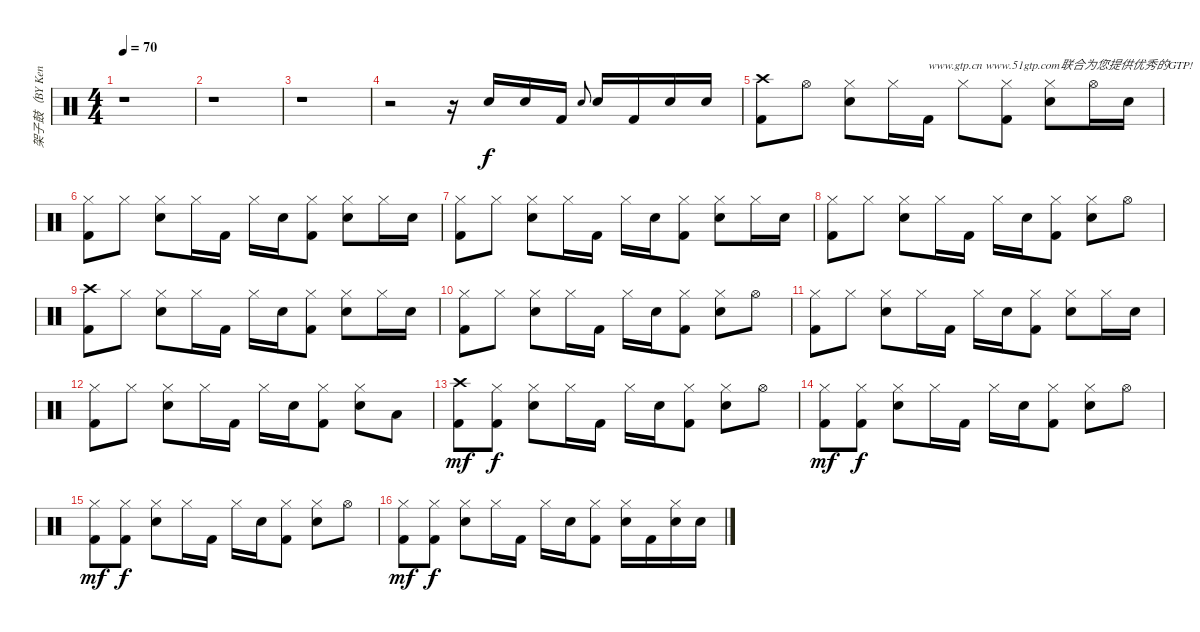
\track ("架子鼓（BY Ken）" "架子鼓（BY Ken") {instrument percussion}
\staff {score}
\articulation defaults
\ts (4 4)
\tempo 70
\clef neutral
\ks c
r.1{dy f} |
r.1 |
r.1 |
r.2 r.16 "Electric Snare (hit)".16 "Electric Snare (hit)".16 "Kick (hit) 2".16 "Electric Snare (hit)".8{gr onbeat} "Electric Snare (hit)".16 "Kick (hit) 2".16 "Electric Snare (hit)".16 "Electric Snare (hit)".16 |
("Crash high (hit)" "Kick (hit) 2").8 "Hi-Hat (open)".8 ("Hi-Hat (closed)" "Electric Snare (hit)").8 "Hi-Hat (closed)".16 "Kick (hit) 2".16{txt "www.gtp.cn www.51gtp.com联合为您提供优秀的GTP!"} "Hi-Hat (closed)".8 ("Hi-Hat (closed)" "Kick (hit) 2").8 ("Hi-Hat (closed)" "Electric Snare (hit)").8 "Hi-Hat (open)".16 "Electric Snare (hit)".16 |
("Hi-Hat (closed)" "Kick (hit) 2").8 "Hi-Hat (closed)".8 ("Hi-Hat (closed)" "Electric Snare (hit)").8 "Hi-Hat (closed)".16 "Kick (hit) 2".16 "Hi-Hat (closed)".16 "Electric Snare (hit)".16 ("Hi-Hat (closed)" "Kick (hit) 2").8 ("Hi-Hat (closed)" "Electric Snare (hit)").8 "Hi-Hat (closed)".16 "Electric Snare (hit)".16 |
("Hi-Hat (closed)" "Kick (hit) 2").8 "Hi-Hat (closed)".8 ("Hi-Hat (closed)" "Electric Snare (hit)").8 "Hi-Hat (closed)".16 "Kick (hit) 2".16 "Hi-Hat (closed)".16 "Electric Snare (hit)".16 ("Hi-Hat (closed)" "Kick (hit) 2").8 ("Hi-Hat (closed)" "Electric Snare (hit)").8 "Hi-Hat (closed)".16 "Electric Snare (hit)".16 |
("Hi-Hat (closed)" "Kick (hit) 2").8 "Hi-Hat (closed)".8 ("Hi-Hat (closed)" "Electric Snare (hit)").8 "Hi-Hat (closed)".16 "Kick (hit) 2".16 "Hi-Hat (closed)".16 "Electric Snare (hit)".16 ("Hi-Hat (closed)" "Kick (hit) 2").8 ("Hi-Hat (closed)" "Electric Snare (hit)").8 "Hi-Hat (open)".8 |
("Crash high (hit)" "Kick (hit) 2").8 "Hi-Hat (closed)".8 ("Hi-Hat (closed)" "Electric Snare (hit)").8 "Hi-Hat (closed)".16 "Kick (hit) 2".16 "Hi-Hat (closed)".16 "Electric Snare (hit)".16 ("Hi-Hat (closed)" "Kick (hit) 2").8 ("Hi-Hat (closed)" "Electric Snare (hit)").8 "Hi-Hat (closed)".16 "Electric Snare (hit)".16 |
("Hi-Hat (closed)" "Kick (hit) 2").8 "Hi-Hat (closed)".8 ("Hi-Hat (closed)" "Electric Snare (hit)").8 "Hi-Hat (closed)".16 "Kick (hit) 2".16 "Hi-Hat (closed)".16 "Electric Snare (hit)".16 ("Hi-Hat (closed)" "Kick (hit) 2").8 ("Hi-Hat (closed)" "Electric Snare (hit)").8 "Hi-Hat (open)".8 |
("Hi-Hat (closed)" "Kick (hit) 2").8 "Hi-Hat (closed)".8 ("Hi-Hat (closed)" "Electric Snare (hit)").8 "Hi-Hat (closed)".16 "Kick (hit) 2".16 "Hi-Hat (closed)".16 "Electric Snare (hit)".16 ("Hi-Hat (closed)" "Kick (hit) 2").8 ("Hi-Hat (closed)" "Electric Snare (hit)").8 "Hi-Hat (closed)".16 "Electric Snare (hit)".16 |
("Hi-Hat (closed)" "Kick (hit) 2").8 "Hi-Hat (closed)".8 ("Hi-Hat (closed)" "Electric Snare (hit)").8 "Hi-Hat (closed)".16 "Kick (hit) 2".16 "Hi-Hat (closed)".16 "Electric Snare (hit)".16 ("Hi-Hat (closed)" "Kick (hit) 2").8 ("Hi-Hat (closed)" "Electric Snare (hit)").8 "Low Floor Tom (hit)".8 |
("Crash high (hit)" "Kick (hit) 2").8{dy mf} ("Hi-Hat (closed)" "Kick (hit) 2").8{dy f} ("Hi-Hat (closed)" "Electric Snare (hit)").8 "Hi-Hat (closed)".16 "Kick (hit) 2".16 "Hi-Hat (closed)".16 "Electric Snare (hit)".16 ("Hi-Hat (closed)" "Kick (hit) 2").8 ("Hi-Hat (closed)" "Electric Snare (hit)").8 "Hi-Hat (open)".8 |
("Hi-Hat (closed)" "Kick (hit) 2").8{dy mf} ("Hi-Hat (closed)" "Kick (hit) 2").8{dy f} ("Hi-Hat (closed)" "Electric Snare (hit)").8 "Hi-Hat (closed)".16 "Kick (hit) 2".16 "Hi-Hat (closed)".16 "Electric Snare (hit)".16 ("Hi-Hat (closed)" "Kick (hit) 2").8 ("Hi-Hat (closed)" "Electric Snare (hit)").8 "Hi-Hat (open)".8 |
("Hi-Hat (closed)" "Kick (hit) 2").8{dy mf} ("Hi-Hat (closed)" "Kick (hit) 2").8{dy f} ("Hi-Hat (closed)" "Electric Snare (hit)").8 "Hi-Hat (closed)".16 "Kick (hit) 2".16 "Hi-Hat (closed)".16 "Electric Snare (hit)".16 ("Hi-Hat (closed)" "Kick (hit) 2").8 ("Hi-Hat (closed)" "Electric Snare (hit)").8 "Hi-Hat (open)".8 |
("Hi-Hat (closed)" "Kick (hit) 2").8{dy mf} ("Hi-Hat (closed)" "Kick (hit) 2").8{dy f} ("Hi-Hat (closed)" "Electric Snare (hit)").8 "Hi-Hat (closed)".16 "Kick (hit) 2".16 "Hi-Hat (closed)".16 "Electric Snare (hit)".16 ("Hi-Hat (closed)" "Kick (hit) 2").8 ("Hi-Hat (closed)" "Electric Snare (hit)").16 "Kick (hit) 2".16 ("Hi-Hat (closed)" "Electric Snare (hit)").16 "Electric Snare (hit)".16
